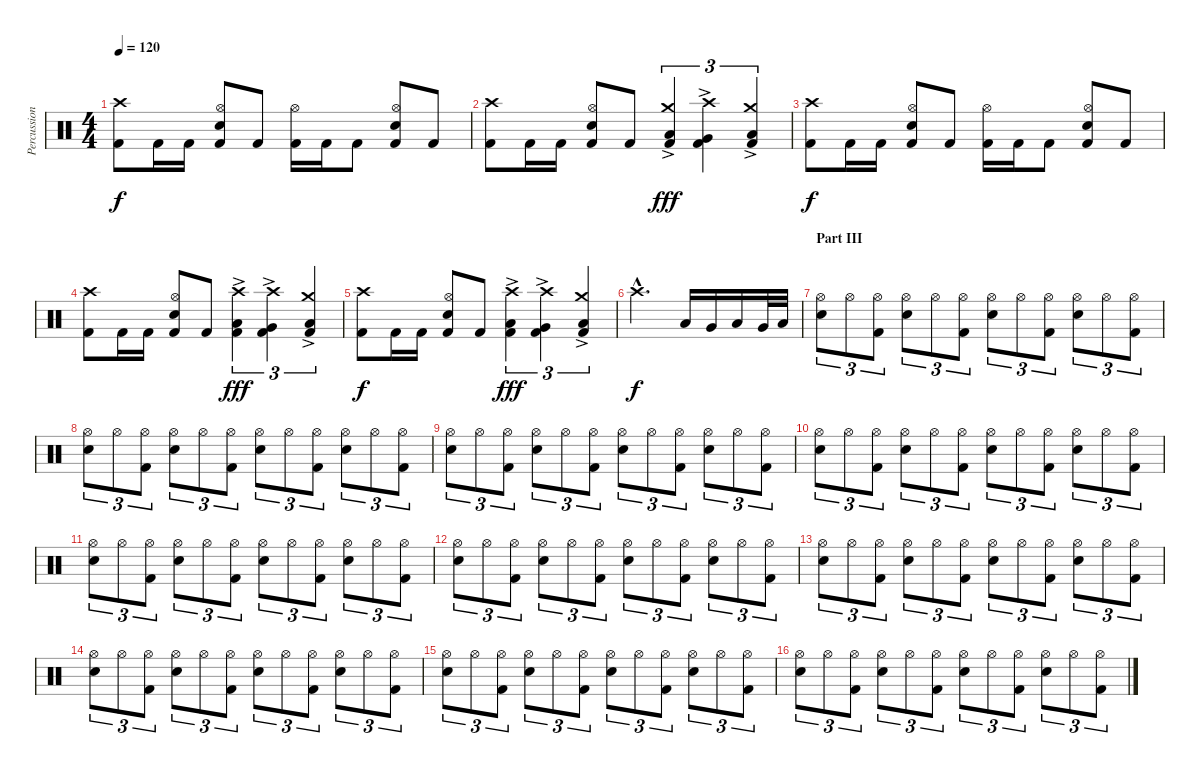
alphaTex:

\track ("Percussion" "Percussion") {instrument percussion}
\staff {score}
\articulation defaults
\ts (4 4)
\tempo 120
\clef neutral
\ks c
("Crash high (hit)" "Kick (hit) 2").8{dy f} "Kick (hit) 2".16 "Kick (hit) 2".16 ("Hi-Hat (open)" "Electric Snare (hit)" "Kick (hit) 2").8 "Kick (hit) 2".8 ("Hi-Hat (open)" "Kick (hit) 2").16 "Kick (hit) 2".16 "Kick (hit) 2".8 ("Hi-Hat (open)" "Electric Snare (hit)" "Kick (hit) 2").8 "Kick (hit) 2".8 |
("Crash high (hit)" "Kick (hit) 2").8 "Kick (hit) 2".16 "Kick (hit) 2".16 ("Hi-Hat (open)" "Electric Snare (hit)" "Kick (hit) 2").8 "Kick (hit) 2".8 ("Crash medium (hit)" "Low Tom (hit)"{ac} "Kick (hit) 2").4{tu (3 2) dy fff} ("Crash high (hit)" "Very Low Tom (hit)"{ac} "Kick (hit) 2").4{tu (3 2)} ("Crash medium (hit)" "Low Tom (hit)"{ac} "Kick (hit) 2").4{tu (3 2)} |
("Crash high (hit)" "Kick (hit) 2").8{dy f} "Kick (hit) 2".16 "Kick (hit) 2".16 ("Hi-Hat (open)" "Electric Snare (hit)" "Kick (hit) 2").8 "Kick (hit) 2".8 ("Hi-Hat (open)" "Kick (hit) 2").16 "Kick (hit) 2".16 "Kick (hit) 2".8 ("Hi-Hat (open)" "Electric Snare (hit)" "Kick (hit) 2").8 "Kick (hit) 2".8 |
("Crash high (hit)" "Kick (hit) 2").8 "Kick (hit) 2".16 "Kick (hit) 2".16 ("Hi-Hat (open)" "Electric Snare (hit)" "Kick (hit) 2").8 "Kick (hit) 2".8 ("Crash high (hit)" "Low Floor Tom (hit)"{ac} "Kick (hit) 2").4{tu (3 2) dy fff} ("Crash high (hit)" "Very Low Tom (hit)"{ac} "Kick (hit) 2").4{tu (3 2)} ("Crash medium (hit)" "Low Tom (hit)"{ac} "Kick (hit) 2").4{tu (3 2)} |
("Crash high (hit)" "Kick (hit) 2").8{dy f} "Kick (hit) 2".16 "Kick (hit) 2".16 ("Hi-Hat (open)" "Electric Snare (hit)" "Kick (hit) 2").8 "Kick (hit) 2".8 ("Crash high (hit)" "Low Floor Tom (hit)"{ac} "Kick (hit) 2").4{tu (3 2) dy fff} ("Crash high (hit)" "Very Low Tom (hit)"{ac} "Kick (hit) 2").4{tu (3 2)} ("Crash medium (hit)" "Low Tom (hit)"{ac} "Kick (hit) 2").4{tu (3 2)} |
"Crash high (hit)"{hac}.2{d dy f} "Low Tom (hit)".16 "Very Low Tom (hit)".16 "Low Floor Tom (hit)".16 "Very Low Tom (hit)".32 "Low Tom (hit)".32 |
\section ("" "Part III")
("Hi-Hat (open)" "Electric Snare (hit)").8{tu (3 2)} "Hi-Hat (open)".8{tu (3 2)} ("Hi-Hat (open)" "Kick (hit) 2").8{tu (3 2)} ("Hi-Hat (open)" "Electric Snare (hit)").8{tu (3 2)} "Hi-Hat (open)".8{tu (3 2)} ("Hi-Hat (open)" "Kick (hit) 2").8{tu (3 2)} ("Hi-Hat (open)" "Electric Snare (hit)").8{tu (3 2)} "Hi-Hat (open)".8{tu (3 2)} ("Hi-Hat (open)" "Kick (hit) 2").8{tu (3 2)} ("Hi-Hat (open)" "Electric Snare (hit)").8{tu (3 2)} "Hi-Hat (open)".8{tu (3 2)} ("Hi-Hat (open)" "Kick (hit) 2").8{tu (3 2)} |
("Hi-Hat (open)" "Electric Snare (hit)").8{tu (3 2)} "Hi-Hat (open)".8{tu (3 2)} ("Hi-Hat (open)" "Kick (hit) 2").8{tu (3 2)} ("Hi-Hat (open)" "Electric Snare (hit)").8{tu (3 2)} "Hi-Hat (open)".8{tu (3 2)} ("Hi-Hat (open)" "Kick (hit) 2").8{tu (3 2)} ("Hi-Hat (open)" "Electric Snare (hit)").8{tu (3 2)} "Hi-Hat (open)".8{tu (3 2)} ("Hi-Hat (open)" "Kick (hit) 2").8{tu (3 2)} ("Hi-Hat (open)" "Electric Snare (hit)").8{tu (3 2)} "Hi-Hat (open)".8{tu (3 2)} ("Hi-Hat (open)" "Kick (hit) 2").8{tu (3 2)} |
("Hi-Hat (open)" "Electric Snare (hit)").8{tu (3 2)} "Hi-Hat (open)".8{tu (3 2)} ("Hi-Hat (open)" "Kick (hit) 2").8{tu (3 2)} ("Hi-Hat (open)" "Electric Snare (hit)").8{tu (3 2)} "Hi-Hat (open)".8{tu (3 2)} ("Hi-Hat (open)" "Kick (hit) 2").8{tu (3 2)} ("Hi-Hat (open)" "Electric Snare (hit)").8{tu (3 2)} "Hi-Hat (open)".8{tu (3 2)} ("Hi-Hat (open)" "Kick (hit) 2").8{tu (3 2)} ("Hi-Hat (open)" "Electric Snare (hit)").8{tu (3 2)} "Hi-Hat (open)".8{tu (3 2)} ("Hi-Hat (open)" "Kick (hit) 2").8{tu (3 2)} |
("Hi-Hat (open)" "Electric Snare (hit)").8{tu (3 2)} "Hi-Hat (open)".8{tu (3 2)} ("Hi-Hat (open)" "Kick (hit) 2").8{tu (3 2)} ("Hi-Hat (open)" "Electric Snare (hit)").8{tu (3 2)} "Hi-Hat (open)".8{tu (3 2)} ("Hi-Hat (open)" "Kick (hit) 2").8{tu (3 2)} ("Hi-Hat (open)" "Electric Snare (hit)").8{tu (3 2)} "Hi-Hat (open)".8{tu (3 2)} ("Hi-Hat (open)" "Kick (hit) 2").8{tu (3 2)} ("Hi-Hat (open)" "Electric Snare (hit)").8{tu (3 2)} "Hi-Hat (open)".8{tu (3 2)} ("Hi-Hat (open)" "Kick (hit) 2").8{tu (3 2)} |
("Hi-Hat (open)" "Electric Snare (hit)").8{tu (3 2)} "Hi-Hat (open)".8{tu (3 2)} ("Hi-Hat (open)" "Kick (hit) 2").8{tu (3 2)} ("Hi-Hat (open)" "Electric Snare (hit)").8{tu (3 2)} "Hi-Hat (open)".8{tu (3 2)} ("Hi-Hat (open)" "Kick (hit) 2").8{tu (3 2)} ("Hi-Hat (open)" "Electric Snare (hit)").8{tu (3 2)} "Hi-Hat (open)".8{tu (3 2)} ("Hi-Hat (open)" "Kick (hit) 2").8{tu (3 2)} ("Hi-Hat (open)" "Electric Snare (hit)").8{tu (3 2)} "Hi-Hat (open)".8{tu (3 2)} ("Hi-Hat (open)" "Kick (hit) 2").8{tu (3 2)} |
("Hi-Hat (open)" "Electric Snare (hit)").8{tu (3 2)} "Hi-Hat (open)".8{tu (3 2)} ("Hi-Hat (open)" "Kick (hit) 2").8{tu (3 2)} ("Hi-Hat (open)" "Electric Snare (hit)").8{tu (3 2)} "Hi-Hat (open)".8{tu (3 2)} ("Hi-Hat (open)" "Kick (hit) 2").8{tu (3 2)} ("Hi-Hat (open)" "Electric Snare (hit)").8{tu (3 2)} "Hi-Hat (open)".8{tu (3 2)} ("Hi-Hat (open)" "Kick (hit) 2").8{tu (3 2)} ("Hi-Hat (open)" "Electric Snare (hit)").8{tu (3 2)} "Hi-Hat (open)".8{tu (3 2)} ("Hi-Hat (open)" "Kick (hit) 2").8{tu (3 2)} |
("Hi-Hat (open)" "Electric Snare (hit)").8{tu (3 2)} "Hi-Hat (open)".8{tu (3 2)} ("Hi-Hat (open)" "Kick (hit) 2").8{tu (3 2)} ("Hi-Hat (open)" "Electric Snare (hit)").8{tu (3 2)} "Hi-Hat (open)".8{tu (3 2)} ("Hi-Hat (open)" "Kick (hit) 2").8{tu (3 2)} ("Hi-Hat (open)" "Electric Snare (hit)").8{tu (3 2)} "Hi-Hat (open)".8{tu (3 2)} ("Hi-Hat (open)" "Kick (hit) 2").8{tu (3 2)} ("Hi-Hat (open)" "Electric Snare (hit)").8{tu (3 2)} "Hi-Hat (open)".8{tu (3 2)} ("Hi-Hat (open)" "Kick (hit) 2").8{tu (3 2)} |
("Hi-Hat (open)" "Electric Snare (hit)").8{tu (3 2)} "Hi-Hat (open)".8{tu (3 2)} ("Hi-Hat (open)" "Kick (hit) 2").8{tu (3 2)} ("Hi-Hat (open)" "Electric Snare (hit)").8{tu (3 2)} "Hi-Hat (open)".8{tu (3 2)} ("Hi-Hat (open)" "Kick (hit) 2").8{tu (3 2)} ("Hi-Hat (open)" "Electric Snare (hit)").8{tu (3 2)} "Hi-Hat (open)".8{tu (3 2)} ("Hi-Hat (open)" "Kick (hit) 2").8{tu (3 2)} ("Hi-Hat (open)" "Electric Snare (hit)").8{tu (3 2)} "Hi-Hat (open)".8{tu (3 2)} ("Hi-Hat (open)" "Kick (hit) 2").8{tu (3 2)} |
("Hi-Hat (open)" "Electric Snare (hit)").8{tu (3 2)} "Hi-Hat (open)".8{tu (3 2)} ("Hi-Hat (open)" "Kick (hit) 2").8{tu (3 2)} ("Hi-Hat (open)" "Electric Snare (hit)").8{tu (3 2)} "Hi-Hat (open)".8{tu (3 2)} ("Hi-Hat (open)" "Kick (hit) 2").8{tu (3 2)} ("Hi-Hat (open)" "Electric Snare (hit)").8{tu (3 2)} "Hi-Hat (open)".8{tu (3 2)} ("Hi-Hat (open)" "Kick (hit) 2").8{tu (3 2)} ("Hi-Hat (open)" "Electric Snare (hit)").8{tu (3 2)} "Hi-Hat (open)".8{tu (3 2)} ("Hi-Hat (open)" "Kick (hit) 2").8{tu (3 2)} |
("Hi-Hat (open)" "Electric Snare (hit)").8{tu (3 2)} "Hi-Hat (open)".8{tu (3 2)} ("Hi-Hat (open)" "Kick (hit) 2").8{tu (3 2)} ("Hi-Hat (open)" "Electric Snare (hit)").8{tu (3 2)} "Hi-Hat (open)".8{tu (3 2)} ("Hi-Hat (open)" "Kick (hit) 2").8{tu (3 2)} ("Hi-Hat (open)" "Electric Snare (hit)").8{tu (3 2)} "Hi-Hat (open)".8{tu (3 2)} ("Hi-Hat (open)" "Kick (hit) 2").8{tu (3 2)} ("Hi-Hat (open)" "Electric Snare (hit)").8{tu (3 2)} "Hi-Hat (open)".8{tu (3 2)} ("Hi-Hat (open)" "Kick (hit) 2").8{tu (3 2)}
